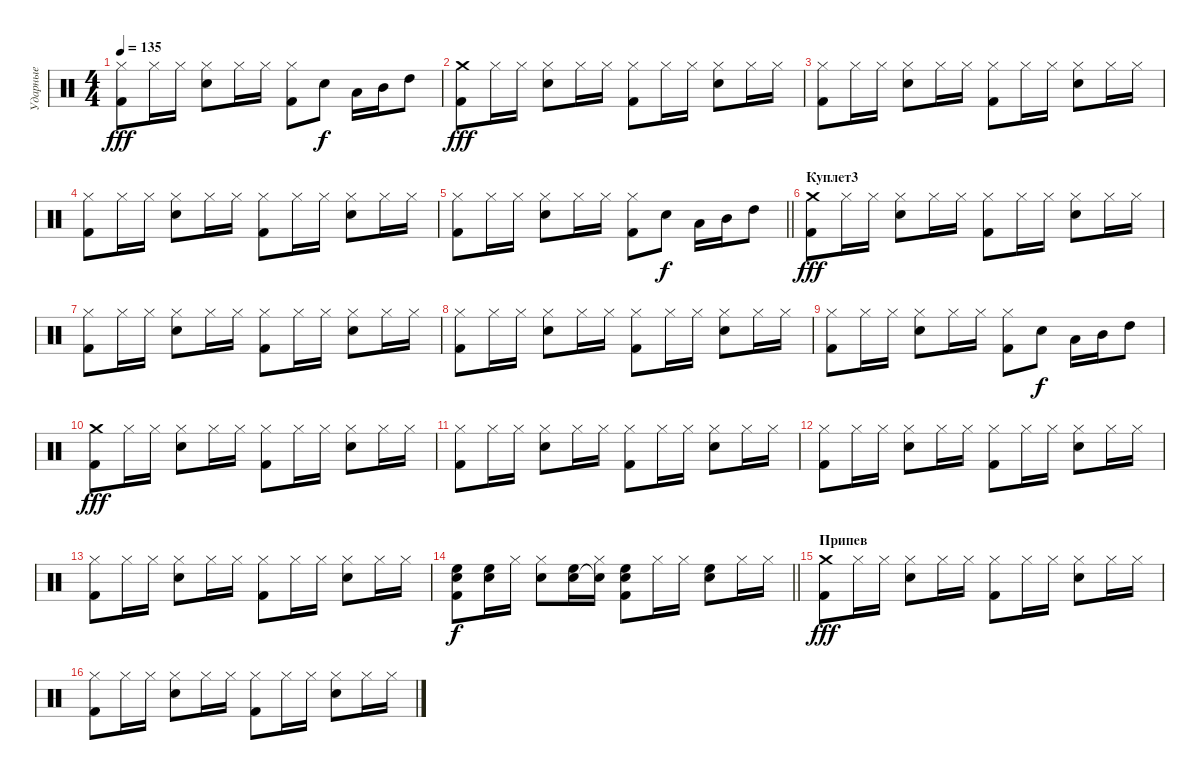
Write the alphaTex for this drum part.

\track ("Ударные" "Ударные") {instrument percussion}
\staff {score}
\articulation defaults
\ts (4 4)
\tempo 135
\clef neutral
\ks c
("Hi-Hat (closed)" "Kick (hit) 2").8{dy fff} "Hi-Hat (closed)".16 "Hi-Hat (closed)".16 ("Hi-Hat (closed)" "Electric Snare (hit)").8 "Hi-Hat (closed)".16 "Hi-Hat (closed)".16 ("Hi-Hat (closed)" "Kick (hit) 2").8 "Electric Snare (hit)".8{dy f} "Low Tom (hit)".16 "Mid Tom (hit)".16 "High Tom (hit)".8 |
("Crash medium (hit)" "Kick (hit) 2").8{dy fff} "Hi-Hat (closed)".16 "Hi-Hat (closed)".16 ("Hi-Hat (closed)" "Electric Snare (hit)").8 "Hi-Hat (closed)".16 "Hi-Hat (closed)".16 ("Hi-Hat (closed)" "Kick (hit) 2").8 "Hi-Hat (closed)".16 "Hi-Hat (closed)".16 ("Hi-Hat (closed)" "Electric Snare (hit)").8 "Hi-Hat (closed)".16 "Hi-Hat (closed)".16 |
("Hi-Hat (closed)" "Kick (hit) 2").8 "Hi-Hat (closed)".16 "Hi-Hat (closed)".16 ("Hi-Hat (closed)" "Electric Snare (hit)").8 "Hi-Hat (closed)".16 "Hi-Hat (closed)".16 ("Hi-Hat (closed)" "Kick (hit) 2").8 "Hi-Hat (closed)".16 "Hi-Hat (closed)".16 ("Hi-Hat (closed)" "Electric Snare (hit)").8 "Hi-Hat (closed)".16 "Hi-Hat (closed)".16 |
("Hi-Hat (closed)" "Kick (hit) 2").8 "Hi-Hat (closed)".16 "Hi-Hat (closed)".16 ("Hi-Hat (closed)" "Electric Snare (hit)").8 "Hi-Hat (closed)".16 "Hi-Hat (closed)".16 ("Hi-Hat (closed)" "Kick (hit) 2").8 "Hi-Hat (closed)".16 "Hi-Hat (closed)".16 ("Hi-Hat (closed)" "Electric Snare (hit)").8 "Hi-Hat (closed)".16 "Hi-Hat (closed)".16 |
\barLineRight lightlight
("Hi-Hat (closed)" "Kick (hit) 2").8 "Hi-Hat (closed)".16 "Hi-Hat (closed)".16 ("Hi-Hat (closed)" "Electric Snare (hit)").8 "Hi-Hat (closed)".16 "Hi-Hat (closed)".16 ("Hi-Hat (closed)" "Kick (hit) 2").8 "Electric Snare (hit)".8{dy f} "Low Tom (hit)".16 "Mid Tom (hit)".16 "High Tom (hit)".8 |
\section ("" "Куплет3")
("Crash medium (hit)" "Kick (hit) 2").8{dy fff} "Hi-Hat (closed)".16 "Hi-Hat (closed)".16 ("Hi-Hat (closed)" "Electric Snare (hit)").8 "Hi-Hat (closed)".16 "Hi-Hat (closed)".16 ("Hi-Hat (closed)" "Kick (hit) 2").8 "Hi-Hat (closed)".16 "Hi-Hat (closed)".16 ("Hi-Hat (closed)" "Electric Snare (hit)").8 "Hi-Hat (closed)".16 "Hi-Hat (closed)".16 |
("Hi-Hat (closed)" "Kick (hit) 2").8 "Hi-Hat (closed)".16 "Hi-Hat (closed)".16 ("Hi-Hat (closed)" "Electric Snare (hit)").8 "Hi-Hat (closed)".16 "Hi-Hat (closed)".16 ("Hi-Hat (closed)" "Kick (hit) 2").8 "Hi-Hat (closed)".16 "Hi-Hat (closed)".16 ("Hi-Hat (closed)" "Electric Snare (hit)").8 "Hi-Hat (closed)".16 "Hi-Hat (closed)".16 |
("Hi-Hat (closed)" "Kick (hit) 2").8 "Hi-Hat (closed)".16 "Hi-Hat (closed)".16 ("Hi-Hat (closed)" "Electric Snare (hit)").8 "Hi-Hat (closed)".16 "Hi-Hat (closed)".16 ("Hi-Hat (closed)" "Kick (hit) 2").8 "Hi-Hat (closed)".16 "Hi-Hat (closed)".16 ("Hi-Hat (closed)" "Electric Snare (hit)").8 "Hi-Hat (closed)".16 "Hi-Hat (closed)".16 |
("Hi-Hat (closed)" "Kick (hit) 2").8 "Hi-Hat (closed)".16 "Hi-Hat (closed)".16 ("Hi-Hat (closed)" "Electric Snare (hit)").8 "Hi-Hat (closed)".16 "Hi-Hat (closed)".16 ("Hi-Hat (closed)" "Kick (hit) 2").8 "Electric Snare (hit)".8{dy f} "Low Tom (hit)".16 "Mid Tom (hit)".16 "High Tom (hit)".8 |
("Crash medium (hit)" "Kick (hit) 2").8{dy fff} "Hi-Hat (closed)".16 "Hi-Hat (closed)".16 ("Hi-Hat (closed)" "Electric Snare (hit)").8 "Hi-Hat (closed)".16 "Hi-Hat (closed)".16 ("Hi-Hat (closed)" "Kick (hit) 2").8 "Hi-Hat (closed)".16 "Hi-Hat (closed)".16 ("Hi-Hat (closed)" "Electric Snare (hit)").8 "Hi-Hat (closed)".16 "Hi-Hat (closed)".16 |
("Hi-Hat (closed)" "Kick (hit) 2").8 "Hi-Hat (closed)".16 "Hi-Hat (closed)".16 ("Hi-Hat (closed)" "Electric Snare (hit)").8 "Hi-Hat (closed)".16 "Hi-Hat (closed)".16 ("Hi-Hat (closed)" "Kick (hit) 2").8 "Hi-Hat (closed)".16 "Hi-Hat (closed)".16 ("Hi-Hat (closed)" "Electric Snare (hit)").8 "Hi-Hat (closed)".16 "Hi-Hat (closed)".16 |
("Hi-Hat (closed)" "Kick (hit) 2").8 "Hi-Hat (closed)".16 "Hi-Hat (closed)".16 ("Hi-Hat (closed)" "Electric Snare (hit)").8 "Hi-Hat (closed)".16 "Hi-Hat (closed)".16 ("Hi-Hat (closed)" "Kick (hit) 2").8 "Hi-Hat (closed)".16 "Hi-Hat (closed)".16 ("Hi-Hat (closed)" "Electric Snare (hit)").8 "Hi-Hat (closed)".16 "Hi-Hat (closed)".16 |
("Hi-Hat (closed)" "Kick (hit) 2").8 "Hi-Hat (closed)".16 "Hi-Hat (closed)".16 ("Hi-Hat (closed)" "Electric Snare (hit)").8 "Hi-Hat (closed)".16 "Hi-Hat (closed)".16 ("Hi-Hat (closed)" "Kick (hit) 2").8 "Hi-Hat (closed)".16 "Hi-Hat (closed)".16 ("Hi-Hat (closed)" "Electric Snare (hit)").8 "Hi-Hat (closed)".16 "Hi-Hat (closed)".16 |
\barLineRight lightlight
("High Floor Tom (hit)" "Electric Snare (hit)" "Kick (hit) 2").8{dy f} ("High Floor Tom (hit)" "Electric Snare (hit)").16 "Hi-Hat (closed)".16 ("Hi-Hat (closed)" "Electric Snare (hit)").8 ("High Floor Tom (hit)" "Electric Snare (hit)").16 ("Hi-Hat (closed)" "Snare (hit)"{t}).16 ("High Floor Tom (hit)" "Electric Snare (hit)" "Kick (hit) 2").8 "Hi-Hat (closed)".16 "Hi-Hat (closed)".16 ("High Floor Tom (hit)" "Electric Snare (hit)").8 "Hi-Hat (closed)".16 "Hi-Hat (closed)".16 |
\section ("" "Припев")
("Crash medium (hit)" "Kick (hit) 2").8{dy fff} "Hi-Hat (closed)".16 "Hi-Hat (closed)".16 ("Hi-Hat (closed)" "Electric Snare (hit)").8 "Hi-Hat (closed)".16 "Hi-Hat (closed)".16 ("Hi-Hat (closed)" "Kick (hit) 2").8 "Hi-Hat (closed)".16 "Hi-Hat (closed)".16 ("Hi-Hat (closed)" "Electric Snare (hit)").8 "Hi-Hat (closed)".16 "Hi-Hat (closed)".16 |
("Hi-Hat (closed)" "Kick (hit) 2").8 "Hi-Hat (closed)".16 "Hi-Hat (closed)".16 ("Hi-Hat (closed)" "Electric Snare (hit)").8 "Hi-Hat (closed)".16 "Hi-Hat (closed)".16 ("Hi-Hat (closed)" "Kick (hit) 2").8 "Hi-Hat (closed)".16 "Hi-Hat (closed)".16 ("Hi-Hat (closed)" "Electric Snare (hit)").8 "Hi-Hat (closed)".16 "Hi-Hat (closed)".16
